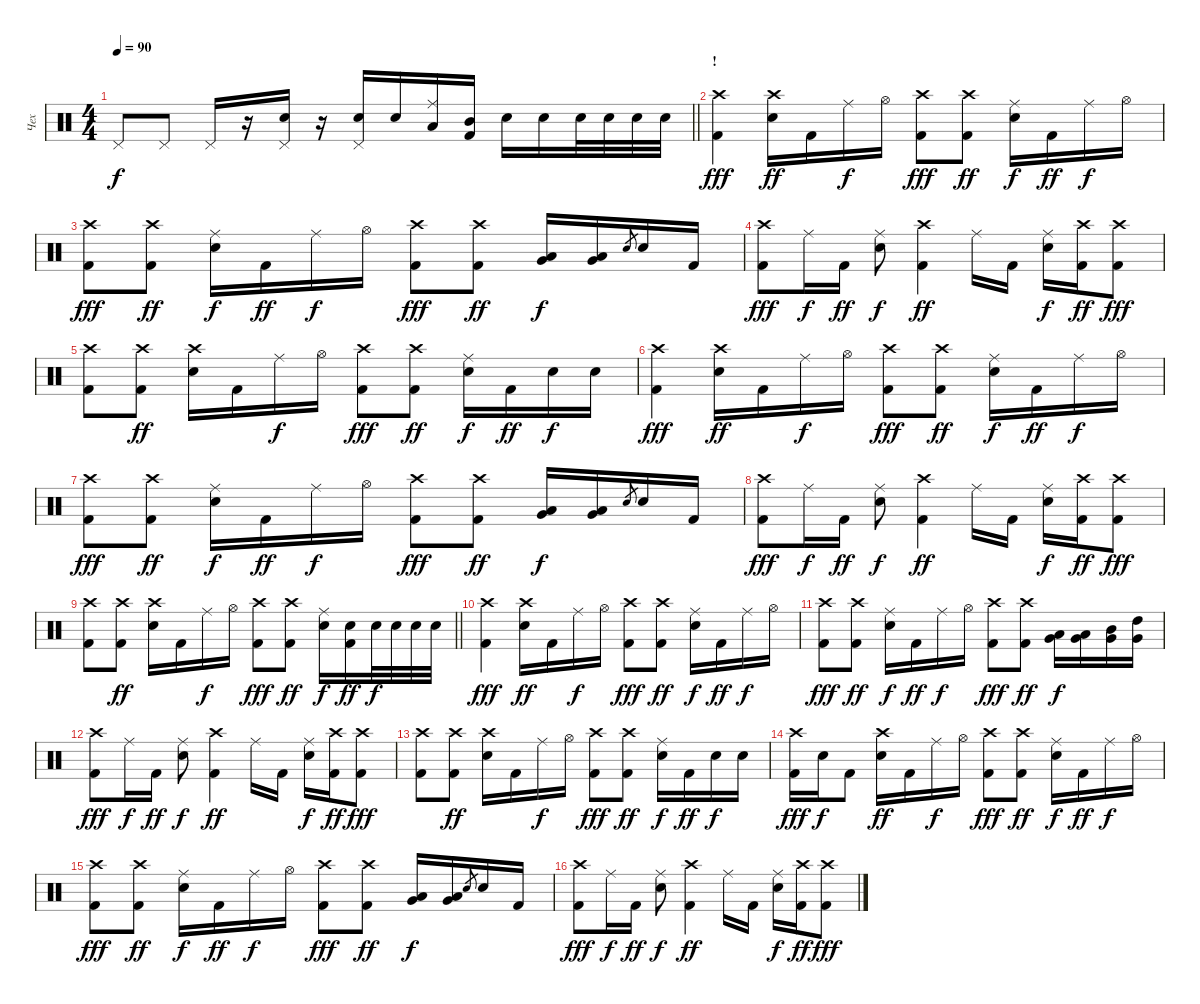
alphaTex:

\track ("Чех" "Чех") {instrument percussion}
\staff {score}
\articulation defaults
\ts (4 4)
\tempo 90
\clef neutral
\barLineRight lightlight
\ks c "Pedal Hi-Hat (hit)".8{dy f} "Pedal Hi-Hat (hit)".8 "Pedal Hi-Hat (hit)".16
r.16 ("Pedal Hi-Hat (hit)" "Electric Snare (hit)").16 r.16 ("Pedal Hi-Hat (hit)" "Electric Snare (hit)").16 "Electric Snare (hit)".16 ("Ride (middle)" "Low Tom (hit)").16 ("Mid Tom (hit)" "Kick (hit) 2").16 "Electric Snare (hit)".16 "Electric Snare (hit)".16 "Electric Snare (hit)".32 "Electric Snare (hit)".32 "Electric Snare (hit)".32 "Electric Snare (hit)".32 |
\section ("" "!")
("Crash high (hit)" "Kick (hit) 2").4{dy fff} ("Crash high (hit)" "Electric Snare (hit)").16{dy ff} "Kick (hit) 2".16 "Ride (middle)".16{dy f} "Hi-Hat (open)".16 ("Crash high (hit)" "Kick (hit) 2").8{dy fff} ("Crash high (hit)" "Kick (hit) 2").8{dy ff} ("Ride (middle)" "Electric Snare (hit)").16{dy f} "Kick (hit) 2".16{dy ff} "Ride (middle)".16{dy f} "Hi-Hat (open)".16 |
("Crash high (hit)" "Kick (hit) 2").8{dy fff} ("Crash high (hit)" "Kick (hit) 2").8{dy ff} ("Ride (middle)" "Electric Snare (hit)").16{dy f} "Kick (hit) 2".16{dy ff} "Ride (middle)".16{dy f} "Hi-Hat (open)".16 ("Crash high (hit)" "Kick (hit) 2").8{dy fff} ("Crash high (hit)" "Kick (hit) 2").8{dy ff} ("Low Tom (hit)" "Very Low Tom (hit)").16{dy f} ("Low Tom (hit)" "Very Low Tom (hit)").16 "Electric Snare (hit)".8{gr} "Electric Snare (hit)".16 "Kick (hit) 2".16 |
("Crash high (hit)" "Kick (hit) 2").8{dy fff} "Ride (middle)".16{dy f} "Kick (hit) 2".16{dy ff} ("Ride (middle)" "Electric Snare (hit)").8{dy f} ("Crash high (hit)" "Kick (hit) 2").4{dy ff} "Ride (middle)".16 "Kick (hit) 2".16 ("Ride (middle)" "Electric Snare (hit)").16{dy f} ("Crash high (hit)" "Kick (hit) 2").16{dy ff} ("Crash high (hit)" "Kick (hit) 2").8{dy fff} |
("Crash high (hit)" "Kick (hit) 2").8 ("Crash high (hit)" "Kick (hit) 2").8{dy ff} ("Crash high (hit)" "Electric Snare (hit)").16 "Kick (hit) 2".16 "Ride (middle)".16{dy f} "Hi-Hat (open)".16 ("Crash high (hit)" "Kick (hit) 2").8{dy fff} ("Crash high (hit)" "Kick (hit) 2").8{dy ff} ("Ride (middle)" "Electric Snare (hit)").16{dy f} "Kick (hit) 2".16{dy ff} "Electric Snare (hit)".16{dy f} "Electric Snare (hit)".16 |
("Crash high (hit)" "Kick (hit) 2").4{dy fff} ("Crash high (hit)" "Electric Snare (hit)").16{dy ff} "Kick (hit) 2".16 "Ride (middle)".16{dy f} "Hi-Hat (open)".16 ("Crash high (hit)" "Kick (hit) 2").8{dy fff} ("Crash high (hit)" "Kick (hit) 2").8{dy ff} ("Ride (middle)" "Electric Snare (hit)").16{dy f} "Kick (hit) 2".16{dy ff} "Ride (middle)".16{dy f} "Hi-Hat (open)".16 |
("Crash high (hit)" "Kick (hit) 2").8{dy fff} ("Crash high (hit)" "Kick (hit) 2").8{dy ff} ("Ride (middle)" "Electric Snare (hit)").16{dy f} "Kick (hit) 2".16{dy ff} "Ride (middle)".16{dy f} "Hi-Hat (open)".16 ("Crash high (hit)" "Kick (hit) 2").8{dy fff} ("Crash high (hit)" "Kick (hit) 2").8{dy ff} ("Low Tom (hit)" "Very Low Tom (hit)").16{dy f} ("Low Tom (hit)" "Very Low Tom (hit)").16 "Electric Snare (hit)".8{gr} "Electric Snare (hit)".16 "Kick (hit) 2".16 |
("Crash high (hit)" "Kick (hit) 2").8{dy fff} "Ride (middle)".16{dy f} "Kick (hit) 2".16{dy ff} ("Ride (middle)" "Electric Snare (hit)").8{dy f} ("Crash high (hit)" "Kick (hit) 2").4{dy ff} "Ride (middle)".16 "Kick (hit) 2".16 ("Ride (middle)" "Electric Snare (hit)").16{dy f} ("Crash high (hit)" "Kick (hit) 2").16{dy ff} ("Crash high (hit)" "Kick (hit) 2").8{dy fff} |
\barLineRight lightlight
("Crash high (hit)" "Kick (hit) 2").8 ("Crash high (hit)" "Kick (hit) 2").8{dy ff} ("Crash high (hit)" "Electric Snare (hit)").16 "Kick (hit) 2".16 "Ride (middle)".16{dy f} "Hi-Hat (open)".16 ("Crash high (hit)" "Kick (hit) 2").8{dy fff} ("Crash high (hit)" "Kick (hit) 2").8{dy ff} ("Ride (middle)" "Electric Snare (hit)").16{dy f} ("Electric Snare (hit)" "Kick (hit) 2").16{dy ff} "Electric Snare (hit)".32{dy f} "Electric Snare (hit)".32 "Electric Snare (hit)".32 "Electric Snare (hit)".32 |
("Crash high (hit)" "Kick (hit) 2").4{dy fff} ("Crash high (hit)" "Electric Snare (hit)").16{dy ff} "Kick (hit) 2".16 "Ride (middle)".16{dy f} "Hi-Hat (open)".16 ("Crash high (hit)" "Kick (hit) 2").8{dy fff} ("Crash high (hit)" "Kick (hit) 2").8{dy ff} ("Ride (middle)" "Electric Snare (hit)").16{dy f} "Kick (hit) 2".16{dy ff} "Ride (middle)".16{dy f} "Hi-Hat (open)".16 |
("Crash high (hit)" "Kick (hit) 2").8{dy fff} ("Crash high (hit)" "Kick (hit) 2").8{dy ff} ("Ride (middle)" "Electric Snare (hit)").16{dy f} "Kick (hit) 2".16{dy ff} "Ride (middle)".16{dy f} "Hi-Hat (open)".16 ("Crash high (hit)" "Kick (hit) 2").8{dy fff} ("Crash high (hit)" "Kick (hit) 2").8{dy ff} ("Low Tom (hit)" "Very Low Tom (hit)").16{dy f} ("Low Tom (hit)" "Very Low Tom (hit)").16 ("Very Low Tom (hit)" "Mid Tom (hit)").16 ("Very Low Tom (hit)" "High Tom (hit)").16 |
("Crash high (hit)" "Kick (hit) 2").8{dy fff} "Ride (middle)".16{dy f} "Kick (hit) 2".16{dy ff} ("Ride (middle)" "Electric Snare (hit)").8{dy f} ("Crash high (hit)" "Kick (hit) 2").4{dy ff} "Ride (middle)".16 "Kick (hit) 2".16 ("Ride (middle)" "Electric Snare (hit)").16{dy f} ("Crash high (hit)" "Kick (hit) 2").16{dy ff} ("Crash high (hit)" "Kick (hit) 2").8{dy fff} |
("Crash high (hit)" "Kick (hit) 2").8 ("Crash high (hit)" "Kick (hit) 2").8{dy ff} ("Crash high (hit)" "Electric Snare (hit)").16 "Kick (hit) 2".16 "Ride (middle)".16{dy f} "Hi-Hat (open)".16 ("Crash high (hit)" "Kick (hit) 2").8{dy fff} ("Crash high (hit)" "Kick (hit) 2").8{dy ff} ("Ride (middle)" "Electric Snare (hit)").16{dy f} "Kick (hit) 2".16{dy ff} "Electric Snare (hit)".16{dy f} "Electric Snare (hit)".16 |
("Crash high (hit)" "Kick (hit) 2").16{dy fff} "Electric Snare (hit)".16{dy f} "Kick (hit) 2".8 ("Crash high (hit)" "Electric Snare (hit)").16{dy ff} "Kick (hit) 2".16 "Ride (middle)".16{dy f} "Hi-Hat (open)".16 ("Crash high (hit)" "Kick (hit) 2").8{dy fff} ("Crash high (hit)" "Kick (hit) 2").8{dy ff} ("Ride (middle)" "Electric Snare (hit)").16{dy f} "Kick (hit) 2".16{dy ff} "Ride (middle)".16{dy f} "Hi-Hat (open)".16 |
("Crash high (hit)" "Kick (hit) 2").8{dy fff} ("Crash high (hit)" "Kick (hit) 2").8{dy ff} ("Ride (middle)" "Electric Snare (hit)").16{dy f} "Kick (hit) 2".16{dy ff} "Ride (middle)".16{dy f} "Hi-Hat (open)".16 ("Crash high (hit)" "Kick (hit) 2").8{dy fff} ("Crash high (hit)" "Kick (hit) 2").8{dy ff} ("Low Tom (hit)" "Very Low Tom (hit)").16{dy f} ("Low Tom (hit)" "Very Low Tom (hit)").16 "Electric Snare (hit)".8{gr} "Electric Snare (hit)".16 "Kick (hit) 2".16 |
("Crash high (hit)" "Kick (hit) 2").8{dy fff} "Ride (middle)".16{dy f} "Kick (hit) 2".16{dy ff} ("Ride (middle)" "Electric Snare (hit)").8{dy f} ("Crash high (hit)" "Kick (hit) 2").4{dy ff} "Ride (middle)".16 "Kick (hit) 2".16 ("Ride (middle)" "Electric Snare (hit)").16{dy f} ("Crash high (hit)" "Kick (hit) 2").16{dy ff} ("Crash high (hit)" "Kick (hit) 2").8{dy fff}
